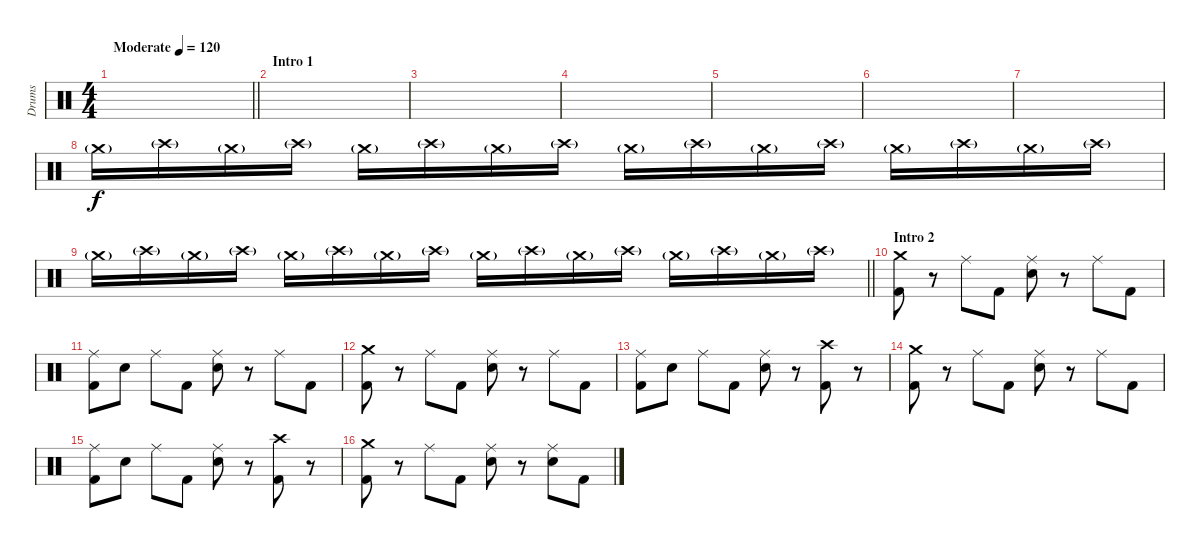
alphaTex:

\track ("Drums" "Drums") {instrument percussion}
\staff {score}
\articulation defaults
\ts (4 4)
\tempo (120 "Moderate")
\clef neutral
\barLineRight lightlight
\ks c
|
\section ("" "Intro 1")
|
|
|
|
|
|
"Crash medium (hit)"{g}.16{volume 8} "Crash high (hit)"{g}.16 "Crash medium (hit)"{g}.16 "Crash high (hit)"{g}.16 "Crash medium (hit)"{g}.16{volume 9} "Crash high (hit)"{g}.16 "Crash medium (hit)"{g}.16 "Crash high (hit)"{g}.16 "Crash medium (hit)"{g}.16{volume 10} "Crash high (hit)"{g}.16 "Crash medium (hit)"{g}.16 "Crash high (hit)"{g}.16 "Crash medium (hit)"{g}.16{volume 11} "Crash high (hit)"{g}.16 "Crash medium (hit)"{g}.16 "Crash high (hit)"{g}.16 |
\barLineRight lightlight "Crash medium (hit)"{g}.16{volume 12} "Crash high (hit)"{g}.16 "Crash medium (hit)"{g}.16 "Crash high (hit)"{g}.16 "Crash medium (hit)"{g}.16{volume 13} "Crash high (hit)"{g}.16 "Crash medium (hit)"{g}.16 "Crash high (hit)"{g}.16 "Crash medium (hit)"{g}.16{volume 14} "Crash high (hit)"{g}.16 "Crash medium (hit)"{g}.16 "Crash high (hit)"{g}.16 "Crash medium (hit)"{g}.16 "Crash high (hit)"{g}.16 "Crash medium (hit)"{g}.16 "Crash high (hit)"{g}.16
|
\section ("" "Intro 2")
("Crash medium (hit)" "Kick (hit) 2").8{dy f} r.8 "Ride (middle)".8 "Kick (hit) 2".8 ("Ride (middle)" "Electric Snare (hit)").8 r.8 "Ride (middle)".8 "Kick (hit) 2".8 |
("Ride (middle)" "Kick (hit) 2").8 "Electric Snare (hit)".8 "Ride (middle)".8 "Kick (hit) 2".8 ("Ride (middle)" "Electric Snare (hit)").8 r.8 "Ride (middle)".8 "Kick (hit) 2".8 |
("Crash medium (hit)" "Kick (hit) 2").8 r.8 "Ride (middle)".8 "Kick (hit) 2".8 ("Ride (middle)" "Electric Snare (hit)").8 r.8 "Ride (middle)".8 "Kick (hit) 2".8 |
("Ride (middle)" "Kick (hit) 2").8 "Electric Snare (hit)".8 "Ride (middle)".8 "Kick (hit) 2".8 ("Ride (middle)" "Electric Snare (hit)").8 r.8 ("Crash high (hit)" "Kick (hit) 2").8 r.8 |
("Crash medium (hit)" "Kick (hit) 2").8 r.8 "Ride (middle)".8 "Kick (hit) 2".8 ("Ride (middle)" "Electric Snare (hit)").8 r.8 "Ride (middle)".8 "Kick (hit) 2".8 |
("Ride (middle)" "Kick (hit) 2").8 "Electric Snare (hit)".8 "Ride (middle)".8 "Kick (hit) 2".8 ("Ride (middle)" "Electric Snare (hit)").8 r.8 ("Crash high (hit)" "Kick (hit) 2").8 r.8 |
("Crash medium (hit)" "Kick (hit) 2").8 r.8 "Ride (middle)".8 "Kick (hit) 2".8 ("Ride (middle)" "Electric Snare (hit)").8 r.8 ("Ride (middle)" "Electric Snare (hit)").8 "Kick (hit) 2".8
